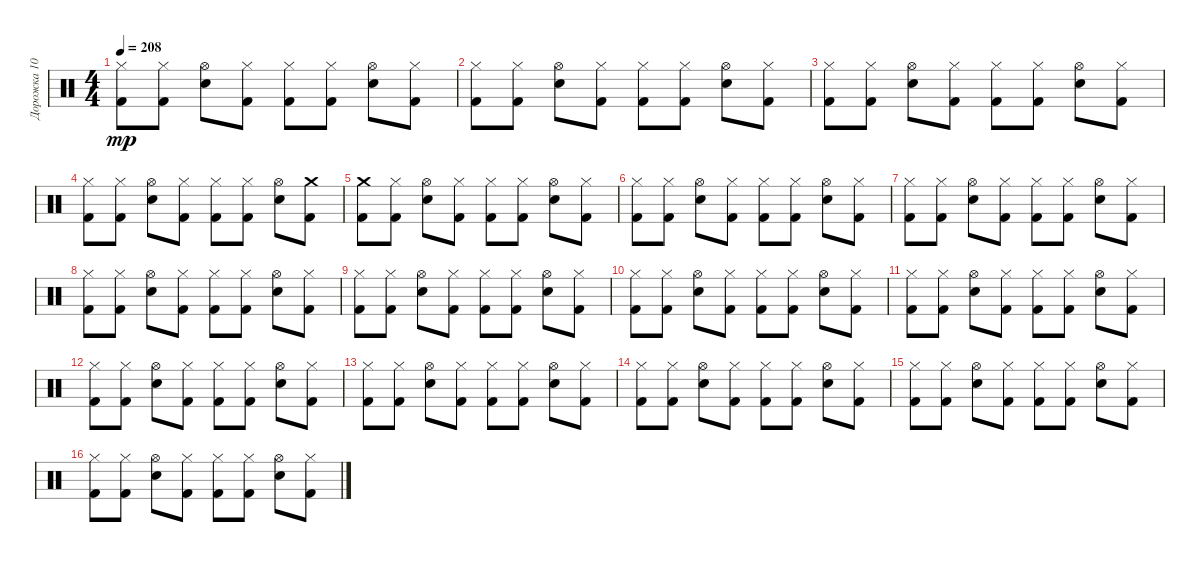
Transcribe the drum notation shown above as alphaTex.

\track ("Дорожка 10" "Дорожка 10") {instrument percussion}
\staff {score}
\articulation defaults
\ts (4 4)
\tempo 208
\clef neutral
\ks c
("Kick (hit) 2" "Hi-Hat (closed)").8{dy mp} ("Kick (hit) 2" "Hi-Hat (closed)").8 ("Snare (hit) 2" "Hi-Hat (open)").8 ("Kick (hit) 2" "Hi-Hat (closed)").8 ("Kick (hit) 2" "Hi-Hat (closed)").8 ("Kick (hit) 2" "Hi-Hat (closed)").8 ("Snare (hit) 2" "Hi-Hat (open)").8 ("Kick (hit) 2" "Hi-Hat (closed)").8 |
("Kick (hit) 2" "Hi-Hat (closed)").8 ("Kick (hit) 2" "Hi-Hat (closed)").8 ("Snare (hit) 2" "Hi-Hat (open)").8 ("Kick (hit) 2" "Hi-Hat (closed)").8 ("Kick (hit) 2" "Hi-Hat (closed)").8 ("Kick (hit) 2" "Hi-Hat (closed)").8 ("Snare (hit) 2" "Hi-Hat (open)").8 ("Kick (hit) 2" "Hi-Hat (closed)").8 |
("Kick (hit) 2" "Hi-Hat (closed)").8 ("Kick (hit) 2" "Hi-Hat (closed)").8 ("Snare (hit) 2" "Hi-Hat (open)").8 ("Kick (hit) 2" "Hi-Hat (closed)").8 ("Kick (hit) 2" "Hi-Hat (closed)").8 ("Kick (hit) 2" "Hi-Hat (closed)").8 ("Snare (hit) 2" "Hi-Hat (open)").8 ("Kick (hit) 2" "Hi-Hat (closed)").8 |
("Kick (hit) 2" "Hi-Hat (closed)").8 ("Kick (hit) 2" "Hi-Hat (closed)").8 ("Snare (hit) 2" "Hi-Hat (open)").8 ("Kick (hit) 2" "Hi-Hat (closed)").8 ("Kick (hit) 2" "Hi-Hat (closed)").8 ("Kick (hit) 2" "Hi-Hat (closed)").8 ("Snare (hit) 2" "Hi-Hat (open)").8 ("Kick (hit) 2" "Crash medium (hit)").8 |
("Kick (hit) 2" "Crash medium (hit)").8 ("Kick (hit) 2" "Hi-Hat (closed)").8 ("Snare (hit) 2" "Hi-Hat (open)").8 ("Kick (hit) 2" "Hi-Hat (closed)").8 ("Kick (hit) 2" "Hi-Hat (closed)").8 ("Kick (hit) 2" "Hi-Hat (closed)").8 ("Snare (hit) 2" "Hi-Hat (open)").8 ("Kick (hit) 2" "Hi-Hat (closed)").8 |
("Kick (hit) 2" "Hi-Hat (closed)").8 ("Kick (hit) 2" "Hi-Hat (closed)").8 ("Snare (hit) 2" "Hi-Hat (open)").8 ("Kick (hit) 2" "Hi-Hat (closed)").8 ("Kick (hit) 2" "Hi-Hat (closed)").8 ("Kick (hit) 2" "Hi-Hat (closed)").8 ("Snare (hit) 2" "Hi-Hat (open)").8 ("Kick (hit) 2" "Hi-Hat (closed)").8 |
("Kick (hit) 2" "Hi-Hat (closed)").8 ("Kick (hit) 2" "Hi-Hat (closed)").8 ("Snare (hit) 2" "Hi-Hat (open)").8 ("Kick (hit) 2" "Hi-Hat (closed)").8 ("Kick (hit) 2" "Hi-Hat (closed)").8 ("Kick (hit) 2" "Hi-Hat (closed)").8 ("Snare (hit) 2" "Hi-Hat (open)").8 ("Kick (hit) 2" "Hi-Hat (closed)").8 |
("Kick (hit) 2" "Hi-Hat (closed)").8 ("Kick (hit) 2" "Hi-Hat (closed)").8 ("Snare (hit) 2" "Hi-Hat (open)").8 ("Kick (hit) 2" "Hi-Hat (closed)").8 ("Kick (hit) 2" "Hi-Hat (closed)").8 ("Kick (hit) 2" "Hi-Hat (closed)").8 ("Snare (hit) 2" "Hi-Hat (open)").8 ("Kick (hit) 2" "Hi-Hat (closed)").8 |
("Kick (hit) 2" "Hi-Hat (closed)").8 ("Kick (hit) 2" "Hi-Hat (closed)").8 ("Snare (hit) 2" "Hi-Hat (open)").8 ("Kick (hit) 2" "Hi-Hat (closed)").8 ("Kick (hit) 2" "Hi-Hat (closed)").8 ("Kick (hit) 2" "Hi-Hat (closed)").8 ("Snare (hit) 2" "Hi-Hat (open)").8 ("Kick (hit) 2" "Hi-Hat (closed)").8 |
("Kick (hit) 2" "Hi-Hat (closed)").8 ("Kick (hit) 2" "Hi-Hat (closed)").8 ("Snare (hit) 2" "Hi-Hat (open)").8 ("Kick (hit) 2" "Hi-Hat (closed)").8 ("Kick (hit) 2" "Hi-Hat (closed)").8 ("Kick (hit) 2" "Hi-Hat (closed)").8 ("Snare (hit) 2" "Hi-Hat (open)").8 ("Kick (hit) 2" "Hi-Hat (closed)").8 |
("Kick (hit) 2" "Hi-Hat (closed)").8 ("Kick (hit) 2" "Hi-Hat (closed)").8 ("Snare (hit) 2" "Hi-Hat (open)").8 ("Kick (hit) 2" "Hi-Hat (closed)").8 ("Kick (hit) 2" "Hi-Hat (closed)").8 ("Kick (hit) 2" "Hi-Hat (closed)").8 ("Snare (hit) 2" "Hi-Hat (open)").8 ("Kick (hit) 2" "Hi-Hat (closed)").8 |
("Kick (hit) 2" "Hi-Hat (closed)").8 ("Kick (hit) 2" "Hi-Hat (closed)").8 ("Snare (hit) 2" "Hi-Hat (open)").8 ("Kick (hit) 2" "Hi-Hat (closed)").8 ("Kick (hit) 2" "Hi-Hat (closed)").8 ("Kick (hit) 2" "Hi-Hat (closed)").8 ("Snare (hit) 2" "Hi-Hat (open)").8 ("Kick (hit) 2" "Hi-Hat (closed)").8 |
("Kick (hit) 2" "Hi-Hat (closed)").8 ("Kick (hit) 2" "Hi-Hat (closed)").8 ("Snare (hit) 2" "Hi-Hat (open)").8 ("Kick (hit) 2" "Hi-Hat (closed)").8 ("Kick (hit) 2" "Hi-Hat (closed)").8 ("Kick (hit) 2" "Hi-Hat (closed)").8 ("Snare (hit) 2" "Hi-Hat (open)").8 ("Kick (hit) 2" "Hi-Hat (closed)").8 |
("Kick (hit) 2" "Hi-Hat (closed)").8 ("Kick (hit) 2" "Hi-Hat (closed)").8 ("Snare (hit) 2" "Hi-Hat (open)").8 ("Kick (hit) 2" "Hi-Hat (closed)").8 ("Kick (hit) 2" "Hi-Hat (closed)").8 ("Kick (hit) 2" "Hi-Hat (closed)").8 ("Snare (hit) 2" "Hi-Hat (open)").8 ("Kick (hit) 2" "Hi-Hat (closed)").8 |
("Kick (hit) 2" "Hi-Hat (closed)").8 ("Kick (hit) 2" "Hi-Hat (closed)").8 ("Snare (hit) 2" "Hi-Hat (open)").8 ("Kick (hit) 2" "Hi-Hat (closed)").8 ("Kick (hit) 2" "Hi-Hat (closed)").8 ("Kick (hit) 2" "Hi-Hat (closed)").8 ("Snare (hit) 2" "Hi-Hat (open)").8 ("Kick (hit) 2" "Hi-Hat (closed)").8 |
("Kick (hit) 2" "Hi-Hat (closed)").8 ("Kick (hit) 2" "Hi-Hat (closed)").8 ("Snare (hit) 2" "Hi-Hat (open)").8 ("Kick (hit) 2" "Hi-Hat (closed)").8 ("Kick (hit) 2" "Hi-Hat (closed)").8 ("Kick (hit) 2" "Hi-Hat (closed)").8 ("Snare (hit) 2" "Hi-Hat (open)").8 ("Kick (hit) 2" "Hi-Hat (closed)").8
